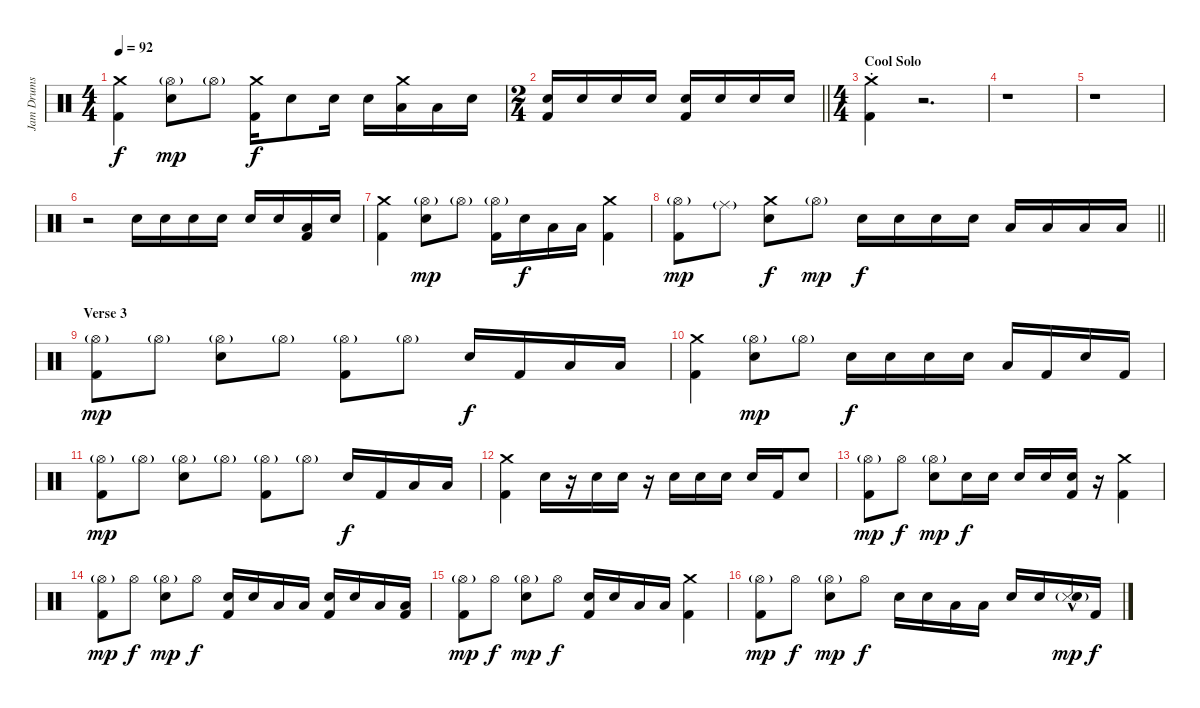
\track ("Jam Drums" "Jam Drums") {instrument percussion}
\staff {score}
\articulation defaults
\ts (4 4)
\tempo 92
\clef neutral
\ks c
("Crash medium (hit)" "Kick (hit) 2").4{dy f} ("Hi-Hat (open)"{g} "Snare (hit) 2").8{dy mp} "Hi-Hat (open)"{g}.8 ("Crash medium (hit)" "Kick (hit) 2").16{dy f} "Snare (hit) 2".8 "Snare (hit) 2".16 "Snare (hit) 2".16 ("Crash medium (hit)" "Low Tom (hit)").16 "Low Tom (hit)".16 "Snare (hit) 2".16 |
\ts (2 4)
\barLineRight lightlight
("Snare (hit) 2" "Kick (hit) 2").16 "Snare (hit) 2".16 "Snare (hit) 2".16 "Snare (hit) 2".16 ("Snare (hit) 2" "Kick (hit) 2").16 "Snare (hit) 2".16 "Snare (hit) 2".16 "Snare (hit) 2".16 |
\ts (4 4)
\section ("" "Cool Solo")
("Crash medium (hit)"{st} "Kick (hit) 2"{st}).4 r.2{d} |
r.1 |
r.1 |
r.2 "Snare (hit) 2".16 "Snare (hit) 2".16 "Snare (hit) 2".16 "Snare (hit) 2".16 "Snare (hit) 2".16 "Snare (hit) 2".16 ("Low Tom (hit)" "Kick (hit) 2").16 "Snare (hit) 2".16 |
("Crash medium (hit)" "Kick (hit) 2").4 ("Hi-Hat (open)"{g} "Snare (hit) 2").8{dy mp} "Hi-Hat (open)"{g}.8 ("Hi-Hat (open)"{g} "Kick (hit) 2").16 "Snare (hit) 2".16{dy f} "Low Tom (hit)".16 "Low Tom (hit)".16 ("Crash medium (hit)" "Kick (hit) 2").4 |
\barLineRight lightlight
("Hi-Hat (open)"{g} "Kick (hit) 2").8{dy mp} "Ride (middle)"{g}.8 ("Crash medium (hit)" "Snare (hit) 2").8{dy f} "Hi-Hat (open)"{g}.8{dy mp} "Snare (hit) 2".16{dy f} "Snare (hit) 2".16 "Snare (hit) 2".16 "Snare (hit) 2".16 "Low Tom (hit)".16 "Low Tom (hit)".16 "Low Tom (hit)".16 "Low Tom (hit)".16 |
\section ("" "Verse 3")
("Hi-Hat (open)"{g} "Kick (hit) 2").8{dy mp} "Hi-Hat (open)"{g}.8 ("Hi-Hat (open)"{g} "Snare (hit) 2").8 "Hi-Hat (open)"{g}.8 ("Hi-Hat (open)"{g} "Kick (hit) 2").8 "Hi-Hat (open)"{g}.8 "Snare (hit) 2".16{dy f} "Kick (hit) 2".16 "Low Tom (hit)".16 "Low Tom (hit)".16 |
("Crash medium (hit)" "Kick (hit) 2").4 ("Hi-Hat (open)"{g} "Snare (hit) 2").8{dy mp} "Hi-Hat (open)"{g}.8 "Snare (hit) 2".16{dy f} "Snare (hit) 2".16 "Snare (hit) 2".16 "Snare (hit) 2".16 "Low Tom (hit)".16 "Kick (hit) 2".16 "Snare (hit) 2".16 "Kick (hit) 2".16 |
("Hi-Hat (open)"{g} "Kick (hit) 2").8{dy mp} "Hi-Hat (open)"{g}.8 ("Hi-Hat (open)"{g} "Snare (hit) 2").8 "Hi-Hat (open)"{g}.8 ("Hi-Hat (open)"{g} "Kick (hit) 2").8 "Hi-Hat (open)"{g}.8 "Snare (hit) 2".16{dy f} "Kick (hit) 2".16 "Low Tom (hit)".16 "Low Tom (hit)".16 |
("Crash medium (hit)" "Kick (hit) 2").4 "Snare (hit) 2".16 r.16 "Snare (hit) 2".16 "Snare (hit) 2".16 r.16 "Snare (hit) 2".16 "Snare (hit) 2".16 "Snare (hit) 2".16 "Snare (hit) 2".16 "Kick (hit) 2".16 "Snare (hit) 2".8 |
("Hi-Hat (open)"{g} "Kick (hit) 2").8{dy mp} "Hi-Hat (open)".8{dy f} ("Hi-Hat (open)"{g} "Snare (hit) 2").8{dy mp} "Snare (hit) 2".16{dy f} "Snare (hit) 2".16 "Snare (hit) 2".16 "Snare (hit) 2".16 ("Snare (hit) 2" "Kick (hit) 2").16 r.16 ("Crash medium (hit)" "Kick (hit) 2").4 |
("Hi-Hat (open)"{g} "Kick (hit) 2").8{dy mp} "Hi-Hat (open)".8{dy f} ("Hi-Hat (open)"{g} "Snare (hit) 2").8{dy mp} "Hi-Hat (open)".8{dy f} ("Snare (hit) 2" "Kick (hit) 2").16 "Snare (hit) 2".16 "Low Tom (hit)".16 "Low Tom (hit)".16 ("Snare (hit) 2" "Kick (hit) 2").16 "Snare (hit) 2".16 "Low Tom (hit)".16 ("Low Tom (hit)" "Kick (hit) 2").16 |
("Hi-Hat (open)"{g} "Kick (hit) 2").8{dy mp} "Hi-Hat (open)".8{dy f} ("Hi-Hat (open)"{g} "Snare (hit) 2").8{dy mp} "Hi-Hat (open)".8{dy f} ("Snare (hit) 2" "Kick (hit) 2").16 "Snare (hit) 2".16 "Low Tom (hit)".16 "Low Tom (hit)".16 ("Crash medium (hit)" "Kick (hit) 2").4 |
("Hi-Hat (open)"{g} "Kick (hit) 2").8{dy mp} "Hi-Hat (open)".8{dy f} ("Hi-Hat (open)"{g} "Snare (hit) 2").8{dy mp} "Hi-Hat (open)".8{dy f} "Snare (hit) 2".16 "Snare (hit) 2".16 "Low Tom (hit)".16 "Low Tom (hit)".16 "Snare (hit) 2".16 "Snare (hit) 2".16 ("Snare (side stick) 3"{hac} "Snare (hit) 2"{g}).16{dy mp} "Kick (hit) 2".16{dy f}
